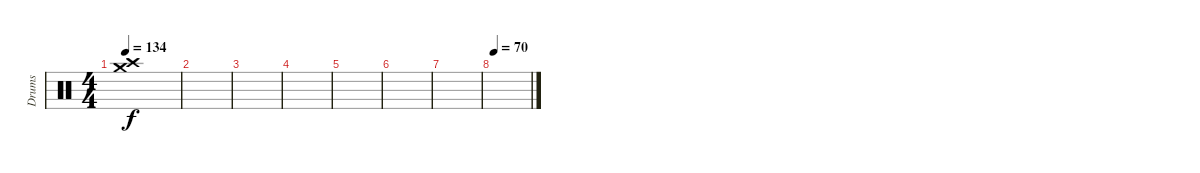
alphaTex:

\track ("Drums" "Drums") {instrument percussion}
\staff {score}
\articulation defaults
\ts (4 4)
\tempo 134
\clef neutral
\ks c
("Crash medium (hit)" "Crash high (hit)").1{dy f} |
|
|
|
|
|
|
\tempo 70
